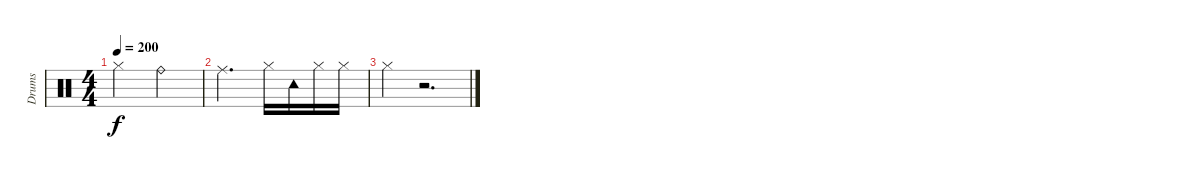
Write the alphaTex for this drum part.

\track ("Drums" "Drums") {instrument percussion}
\staff {score}
\articulation defaults
\ts (4 4)
\tempo 200
\clef neutral
\ks c "Hi-Hat (closed)".2{dy f} "Ride (bell)".2
|
"Ride (middle)".2{d} "Hi-Hat (closed)".16 "Tambourine (hit)".16 "Hi-Hat (closed)".16 "Hi-Hat (closed)".16 |
"Hi-Hat (closed)".4 r.2{d}
